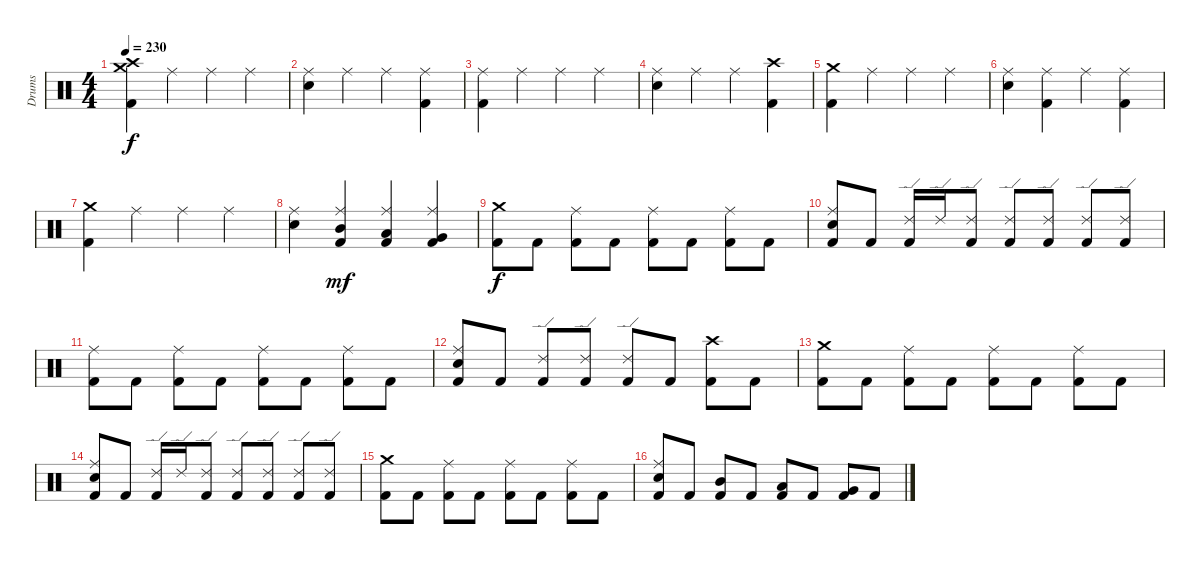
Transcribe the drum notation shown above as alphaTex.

\track ("Drums" "Drums") {instrument percussion}
\staff {score}
\articulation defaults
\ts (4 4)
\tempo 230
\clef neutral
\ks c
("Crash medium (hit)" "Crash high (hit)" "Kick (hit) 2").4{dy f} "Ride (middle)".4 "Ride (middle)".4 "Ride (middle)".4 |
("Ride (middle)" "Electric Snare (hit)").4 "Ride (middle)".4 "Ride (middle)".4 ("Ride (middle)" "Kick (hit) 2").4 |
("Ride (middle)" "Kick (hit) 2").4 "Ride (middle)".4 "Ride (middle)".4 "Ride (middle)".4 |
("Ride (middle)" "Electric Snare (hit)").4 "Ride (middle)".4 "Ride (middle)".4 ("Crash high (hit)" "Kick (hit) 2").4 |
("Crash medium (hit)" "Kick (hit) 2").4 "Ride (middle)".4 "Ride (middle)".4 "Ride (middle)".4 |
("Ride (middle)" "Electric Snare (hit)").4 ("Ride (middle)" "Kick (hit) 2").4 "Ride (middle)".4 ("Ride (middle)" "Kick (hit) 2").4 |
("Crash medium (hit)" "Kick (hit) 2").4 "Ride (middle)".4 "Ride (middle)".4 "Ride (middle)".4 |
("Ride (middle)" "Electric Snare (hit)").4 ("Ride (middle)" "Mid Tom (hit)" "Kick (hit) 2").4{dy mf} ("Ride (middle)" "Low Tom (hit)" "Kick (hit) 2").4 ("Ride (middle)" "Very Low Tom (hit)" "Kick (hit) 2").4 |
("Crash medium (hit)" "Kick (hit) 2").8{dy f} "Kick (hit) 2".8 ("Ride (middle)" "Kick (hit) 2").8 "Kick (hit) 2".8 ("Ride (middle)" "Kick (hit) 2").8 "Kick (hit) 2".8 ("Ride (middle)" "Kick (hit) 2").8 "Kick (hit) 2".8 |
("Ride (middle)" "Electric Snare (hit)" "Kick (hit) 2").8 "Kick (hit) 2".8 ("Ride (edge) 2" "Kick (hit) 2").16 "Ride (edge) 2".16 ("Ride (edge) 2" "Kick (hit) 2").8 ("Ride (edge) 2" "Kick (hit) 2").8 ("Ride (edge) 2" "Kick (hit) 2").8 ("Ride (edge) 2" "Kick (hit) 2").8 ("Ride (edge) 2" "Kick (hit) 2").8 |
("Ride (middle)" "Kick (hit) 2").8 "Kick (hit) 2".8 ("Ride (middle)" "Kick (hit) 2").8 "Kick (hit) 2".8 ("Ride (middle)" "Kick (hit) 2").8 "Kick (hit) 2".8 ("Ride (middle)" "Kick (hit) 2").8 "Kick (hit) 2".8 |
("Ride (middle)" "Electric Snare (hit)" "Kick (hit) 2").8 "Kick (hit) 2".8 ("Ride (edge) 2" "Kick (hit) 2").8 ("Ride (edge) 2" "Kick (hit) 2").8 ("Ride (edge) 2" "Kick (hit) 2").8 "Kick (hit) 2".8 ("Crash high (hit)" "Kick (hit) 2").8 "Kick (hit) 2".8 |
("Crash medium (hit)" "Kick (hit) 2").8 "Kick (hit) 2".8 ("Ride (middle)" "Kick (hit) 2").8 "Kick (hit) 2".8 ("Ride (middle)" "Kick (hit) 2").8 "Kick (hit) 2".8 ("Ride (middle)" "Kick (hit) 2").8 "Kick (hit) 2".8 |
("Ride (middle)" "Electric Snare (hit)" "Kick (hit) 2").8 "Kick (hit) 2".8 ("Ride (edge) 2" "Kick (hit) 2").16 "Ride (edge) 2".16 ("Ride (edge) 2" "Kick (hit) 2").8 ("Ride (edge) 2" "Kick (hit) 2").8 ("Ride (edge) 2" "Kick (hit) 2").8 ("Ride (edge) 2" "Kick (hit) 2").8 ("Ride (edge) 2" "Kick (hit) 2").8 |
("Crash medium (hit)" "Kick (hit) 2").8 "Kick (hit) 2".8 ("Ride (middle)" "Kick (hit) 2").8 "Kick (hit) 2".8 ("Ride (middle)" "Kick (hit) 2").8 "Kick (hit) 2".8 ("Ride (middle)" "Kick (hit) 2").8 "Kick (hit) 2".8 |
("Ride (middle)" "Electric Snare (hit)" "Kick (hit) 2").8 "Kick (hit) 2".8 ("Mid Tom (hit)" "Kick (hit) 2").8 "Kick (hit) 2".8 ("Low Tom (hit)" "Kick (hit) 2").8 "Kick (hit) 2".8 ("Very Low Tom (hit)" "Kick (hit) 2").8 "Kick (hit) 2".8
